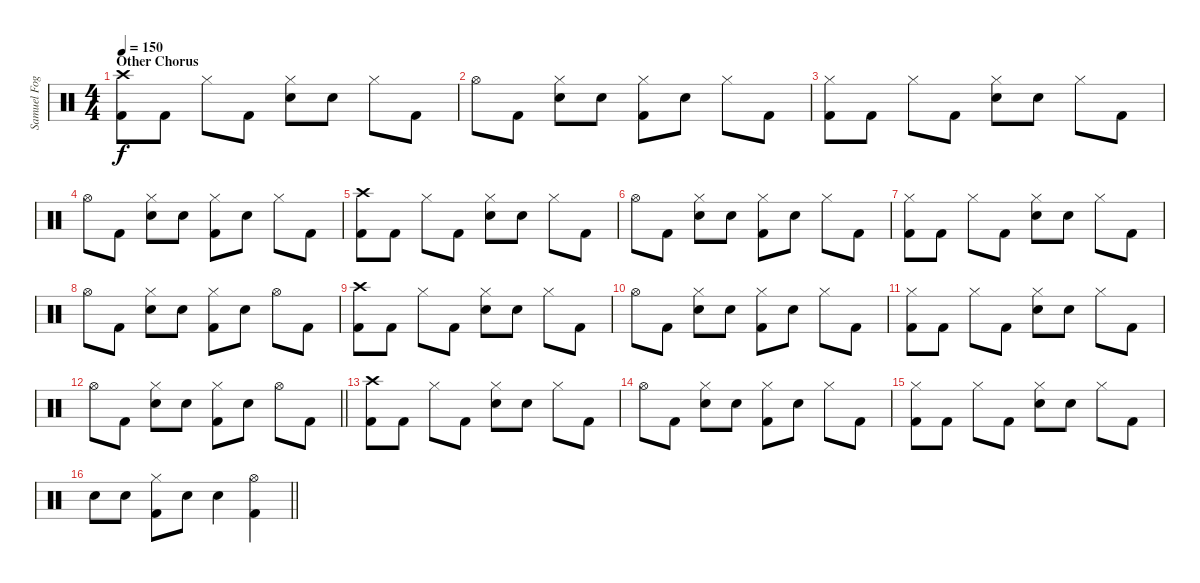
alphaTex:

\track ("Samuel Fogarino" "Samuel Fog") {instrument percussion}
\staff {score}
\articulation defaults
\ts (4 4)
\section ("" "Other Chorus")
\tempo 150
\clef neutral
\ks c
("Crash high (hit)" "Kick (hit) 2").8{dy f} "Kick (hit) 2".8 "Hi-Hat (closed)".8 "Kick (hit) 2".8 ("Hi-Hat (closed)" "Electric Snare (hit)").8 "Electric Snare (hit)".8 "Hi-Hat (closed)".8 "Kick (hit) 2".8 |
"Hi-Hat (open)".8 "Kick (hit) 2".8 ("Hi-Hat (closed)" "Electric Snare (hit)").8 "Electric Snare (hit)".8 ("Hi-Hat (closed)" "Kick (hit) 2").8 "Electric Snare (hit)".8 "Hi-Hat (closed)".8 "Kick (hit) 2".8 |
("Hi-Hat (closed)" "Kick (hit) 2").8 "Kick (hit) 2".8 "Hi-Hat (closed)".8 "Kick (hit) 2".8 ("Hi-Hat (closed)" "Electric Snare (hit)").8 "Electric Snare (hit)".8 "Hi-Hat (closed)".8 "Kick (hit) 2".8 |
"Hi-Hat (open)".8 "Kick (hit) 2".8 ("Hi-Hat (closed)" "Electric Snare (hit)").8 "Electric Snare (hit)".8 ("Hi-Hat (closed)" "Kick (hit) 2").8 "Electric Snare (hit)".8 "Hi-Hat (closed)".8 "Kick (hit) 2".8 |
("Crash high (hit)" "Kick (hit) 2").8 "Kick (hit) 2".8 "Hi-Hat (closed)".8 "Kick (hit) 2".8 ("Hi-Hat (closed)" "Electric Snare (hit)").8 "Electric Snare (hit)".8 "Hi-Hat (closed)".8 "Kick (hit) 2".8 |
"Hi-Hat (open)".8 "Kick (hit) 2".8 ("Hi-Hat (closed)" "Electric Snare (hit)").8 "Electric Snare (hit)".8 ("Hi-Hat (closed)" "Kick (hit) 2").8 "Electric Snare (hit)".8 "Hi-Hat (closed)".8 "Kick (hit) 2".8 |
("Hi-Hat (closed)" "Kick (hit) 2").8 "Kick (hit) 2".8 "Hi-Hat (closed)".8 "Kick (hit) 2".8 ("Hi-Hat (closed)" "Electric Snare (hit)").8 "Electric Snare (hit)".8 "Hi-Hat (closed)".8 "Kick (hit) 2".8 |
"Hi-Hat (open)".8 "Kick (hit) 2".8 ("Hi-Hat (closed)" "Electric Snare (hit)").8 "Electric Snare (hit)".8 ("Hi-Hat (closed)" "Kick (hit) 2").8 "Electric Snare (hit)".8 "Hi-Hat (open)".8 "Kick (hit) 2".8 |
("Crash high (hit)" "Kick (hit) 2").8 "Kick (hit) 2".8 "Hi-Hat (closed)".8 "Kick (hit) 2".8 ("Hi-Hat (closed)" "Electric Snare (hit)").8 "Electric Snare (hit)".8 "Hi-Hat (closed)".8 "Kick (hit) 2".8 |
"Hi-Hat (open)".8 "Kick (hit) 2".8 ("Hi-Hat (closed)" "Electric Snare (hit)").8 "Electric Snare (hit)".8 ("Hi-Hat (closed)" "Kick (hit) 2").8 "Electric Snare (hit)".8 "Hi-Hat (closed)".8 "Kick (hit) 2".8 |
("Hi-Hat (closed)" "Kick (hit) 2").8 "Kick (hit) 2".8 "Hi-Hat (closed)".8 "Kick (hit) 2".8 ("Hi-Hat (closed)" "Electric Snare (hit)").8 "Electric Snare (hit)".8 "Hi-Hat (closed)".8 "Kick (hit) 2".8 |
\barLineRight lightlight "Hi-Hat (open)".8 "Kick (hit) 2".8
("Hi-Hat (closed)" "Electric Snare (hit)").8 "Electric Snare (hit)".8 ("Hi-Hat (closed)" "Kick (hit) 2").8 "Electric Snare (hit)".8 "Hi-Hat (open)".8 "Kick (hit) 2".8 |
("Crash high (hit)" "Kick (hit) 2").8 "Kick (hit) 2".8 "Hi-Hat (closed)".8 "Kick (hit) 2".8 ("Hi-Hat (closed)" "Electric Snare (hit)").8 "Electric Snare (hit)".8 "Hi-Hat (closed)".8 "Kick (hit) 2".8 |
"Hi-Hat (open)".8 "Kick (hit) 2".8 ("Hi-Hat (closed)" "Electric Snare (hit)").8 "Electric Snare (hit)".8 ("Hi-Hat (closed)" "Kick (hit) 2").8 "Electric Snare (hit)".8 "Hi-Hat (closed)".8 "Kick (hit) 2".8 |
("Hi-Hat (closed)" "Kick (hit) 2").8 "Kick (hit) 2".8 "Hi-Hat (closed)".8 "Kick (hit) 2".8 ("Hi-Hat (closed)" "Electric Snare (hit)").8 "Electric Snare (hit)".8 "Hi-Hat (closed)".8 "Kick (hit) 2".8 |
\barLineRight lightlight "Electric Snare (hit)".8 "Electric Snare (hit)".8
("Hi-Hat (closed)" "Kick (hit) 2").8 "Electric Snare (hit)".8 "Electric Snare (hit)".4 ("Hi-Hat (open)" "Kick (hit) 2").4
